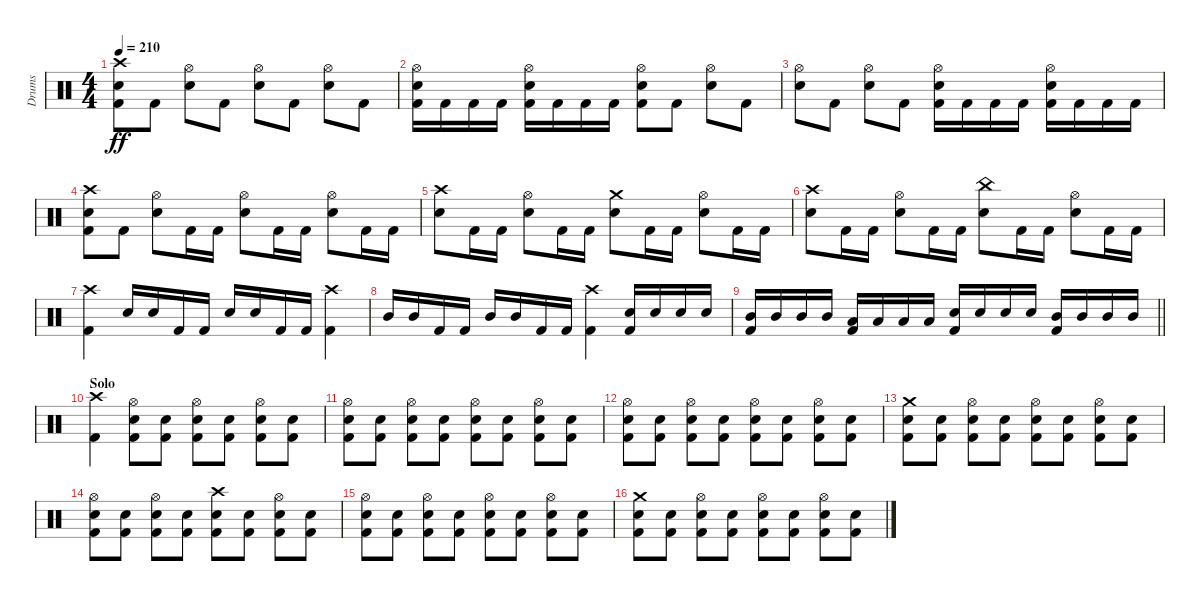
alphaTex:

\track ("Drums" "Drums") {instrument percussion}
\staff {score}
\articulation defaults
\ts (4 4)
\tempo 210
\clef neutral
\ks c
("Crash high (hit)" "Snare (hit) 2" "Kick (hit) 2").8{dy ff} "Kick (hit) 2".8 ("Hi-Hat (open)" "Snare (hit) 2").8 "Kick (hit) 2".8 ("Hi-Hat (open)" "Snare (hit) 2").8 "Kick (hit) 2".8 ("Hi-Hat (open)" "Snare (hit) 2").8 "Kick (hit) 2".8 |
("Hi-Hat (open)" "Snare (hit) 2" "Kick (hit) 2").16 "Kick (hit) 2".16 "Kick (hit) 2".16 "Kick (hit) 2".16 ("Hi-Hat (open)" "Snare (hit) 2" "Kick (hit) 2").16 "Kick (hit) 2".16 "Kick (hit) 2".16 "Kick (hit) 2".16 ("Hi-Hat (open)" "Snare (hit) 2" "Kick (hit) 2").8 "Kick (hit) 2".8 ("Hi-Hat (open)" "Snare (hit) 2").8 "Kick (hit) 2".8 |
("Hi-Hat (open)" "Snare (hit) 2").8 "Kick (hit) 2".8 ("Hi-Hat (open)" "Snare (hit) 2").8 "Kick (hit) 2".8 ("Hi-Hat (open)" "Snare (hit) 2" "Kick (hit) 2").16 "Kick (hit) 2".16 "Kick (hit) 2".16 "Kick (hit) 2".16 ("Hi-Hat (open)" "Snare (hit) 2" "Kick (hit) 2").16 "Kick (hit) 2".16 "Kick (hit) 2".16 "Kick (hit) 2".16 |
("Crash high (hit)" "Snare (hit) 2" "Kick (hit) 2").8 "Kick (hit) 2".8 ("Hi-Hat (open)" "Snare (hit) 2").8 "Kick (hit) 2".16 "Kick (hit) 2".16 ("Hi-Hat (open)" "Snare (hit) 2").8 "Kick (hit) 2".16 "Kick (hit) 2".16 ("Hi-Hat (open)" "Snare (hit) 2").8 "Kick (hit) 2".16 "Kick (hit) 2".16 |
("Crash high (hit)" "Snare (hit) 2").8 "Kick (hit) 2".16 "Kick (hit) 2".16 ("Hi-Hat (open)" "Snare (hit) 2").8 "Kick (hit) 2".16 "Kick (hit) 2".16 ("Crash medium (hit)" "Snare (hit) 2").8 "Kick (hit) 2".16 "Kick (hit) 2".16 ("Hi-Hat (open)" "Snare (hit) 2").8 "Kick (hit) 2".16 "Kick (hit) 2".16 |
("Crash high (hit)" "Snare (hit) 2").8 "Kick (hit) 2".16 "Kick (hit) 2".16 ("Hi-Hat (open)" "Snare (hit) 2").8 "Kick (hit) 2".16 "Kick (hit) 2".16 ("China (hit)" "Snare (hit) 2").8 "Kick (hit) 2".16 "Kick (hit) 2".16 ("Hi-Hat (open)" "Snare (hit) 2").8 "Kick (hit) 2".16 "Kick (hit) 2".16 |
("Crash high (hit)" "Kick (hit) 2").4 "Snare (hit) 2".16 "Snare (hit) 2".16 "Kick (hit) 2".16 "Kick (hit) 2".16 "Snare (hit) 2".16 "Snare (hit) 2".16 "Kick (hit) 2".16 "Kick (hit) 2".16 ("Crash high (hit)" "Kick (hit) 2").4 |
"Mid Tom (hit)".16 "Mid Tom (hit)".16 "Kick (hit) 2".16 "Kick (hit) 2".16 "Mid Tom (hit)".16 "Mid Tom (hit)".16 "Kick (hit) 2".16 "Kick (hit) 2".16 ("Crash high (hit)" "Kick (hit) 2").4 ("Snare (hit) 2" "Kick (hit) 2").16 "Snare (hit) 2".16 "Snare (hit) 2".16 "Snare (hit) 2".16 |
\barLineRight lightlight
("Mid Tom (hit)" "Kick (hit) 2").16 "Mid Tom (hit)".16 "Mid Tom (hit)".16 "Mid Tom (hit)".16 ("Low Tom (hit)" "Kick (hit) 2").16 "Low Tom (hit)".16 "Low Tom (hit)".16 "Low Tom (hit)".16 ("Snare (hit) 2" "Kick (hit) 2").16 "Snare (hit) 2".16 "Snare (hit) 2".16 "Snare (hit) 2".16 ("Mid Tom (hit)" "Kick (hit) 2").16 "Mid Tom (hit)".16 "Mid Tom (hit)".16 "Mid Tom (hit)".16 |
\section ("" "Solo")
("Crash high (hit)" "Kick (hit) 2").4 ("Hi-Hat (open)" "Snare (hit) 2" "Kick (hit) 2").8 ("Snare (hit) 2" "Kick (hit) 2").8 ("Hi-Hat (open)" "Snare (hit) 2" "Kick (hit) 2").8 ("Snare (hit) 2" "Kick (hit) 2").8 ("Hi-Hat (open)" "Snare (hit) 2" "Kick (hit) 2").8 ("Snare (hit) 2" "Kick (hit) 2").8 |
("Hi-Hat (open)" "Snare (hit) 2" "Kick (hit) 2").8 ("Snare (hit) 2" "Kick (hit) 2").8 ("Hi-Hat (open)" "Snare (hit) 2" "Kick (hit) 2").8 ("Snare (hit) 2" "Kick (hit) 2").8 ("Hi-Hat (open)" "Snare (hit) 2" "Kick (hit) 2").8 ("Snare (hit) 2" "Kick (hit) 2").8 ("Hi-Hat (open)" "Snare (hit) 2" "Kick (hit) 2").8 ("Snare (hit) 2" "Kick (hit) 2").8 |
("Hi-Hat (open)" "Snare (hit) 2" "Kick (hit) 2").8 ("Snare (hit) 2" "Kick (hit) 2").8 ("Hi-Hat (open)" "Snare (hit) 2" "Kick (hit) 2").8 ("Snare (hit) 2" "Kick (hit) 2").8 ("Hi-Hat (open)" "Snare (hit) 2" "Kick (hit) 2").8 ("Snare (hit) 2" "Kick (hit) 2").8 ("Hi-Hat (open)" "Snare (hit) 2" "Kick (hit) 2").8 ("Snare (hit) 2" "Kick (hit) 2").8 |
("Crash medium (hit)" "Snare (hit) 2" "Kick (hit) 2").8 ("Snare (hit) 2" "Kick (hit) 2").8 ("Hi-Hat (open)" "Snare (hit) 2" "Kick (hit) 2").8 ("Snare (hit) 2" "Kick (hit) 2").8 ("Hi-Hat (open)" "Snare (hit) 2" "Kick (hit) 2").8 ("Snare (hit) 2" "Kick (hit) 2").8 ("Hi-Hat (open)" "Snare (hit) 2" "Kick (hit) 2").8 ("Snare (hit) 2" "Kick (hit) 2").8 |
("Hi-Hat (open)" "Snare (hit) 2" "Kick (hit) 2").8 ("Snare (hit) 2" "Kick (hit) 2").8 ("Hi-Hat (open)" "Snare (hit) 2" "Kick (hit) 2").8 ("Snare (hit) 2" "Kick (hit) 2").8 ("Crash high (hit)" "Snare (hit) 2" "Kick (hit) 2").8 ("Snare (hit) 2" "Kick (hit) 2").8 ("Hi-Hat (open)" "Snare (hit) 2" "Kick (hit) 2").8 ("Snare (hit) 2" "Kick (hit) 2").8 |
("Hi-Hat (open)" "Snare (hit) 2" "Kick (hit) 2").8 ("Snare (hit) 2" "Kick (hit) 2").8 ("Hi-Hat (open)" "Snare (hit) 2" "Kick (hit) 2").8 ("Snare (hit) 2" "Kick (hit) 2").8 ("Hi-Hat (open)" "Snare (hit) 2" "Kick (hit) 2").8 ("Snare (hit) 2" "Kick (hit) 2").8 ("Hi-Hat (open)" "Snare (hit) 2" "Kick (hit) 2").8 ("Snare (hit) 2" "Kick (hit) 2").8 |
("Crash medium (hit)" "Snare (hit) 2" "Kick (hit) 2").8 ("Snare (hit) 2" "Kick (hit) 2").8 ("Hi-Hat (open)" "Snare (hit) 2" "Kick (hit) 2").8 ("Snare (hit) 2" "Kick (hit) 2").8 ("Hi-Hat (open)" "Snare (hit) 2" "Kick (hit) 2").8 ("Snare (hit) 2" "Kick (hit) 2").8 ("Hi-Hat (open)" "Snare (hit) 2" "Kick (hit) 2").8 ("Snare (hit) 2" "Kick (hit) 2").8
